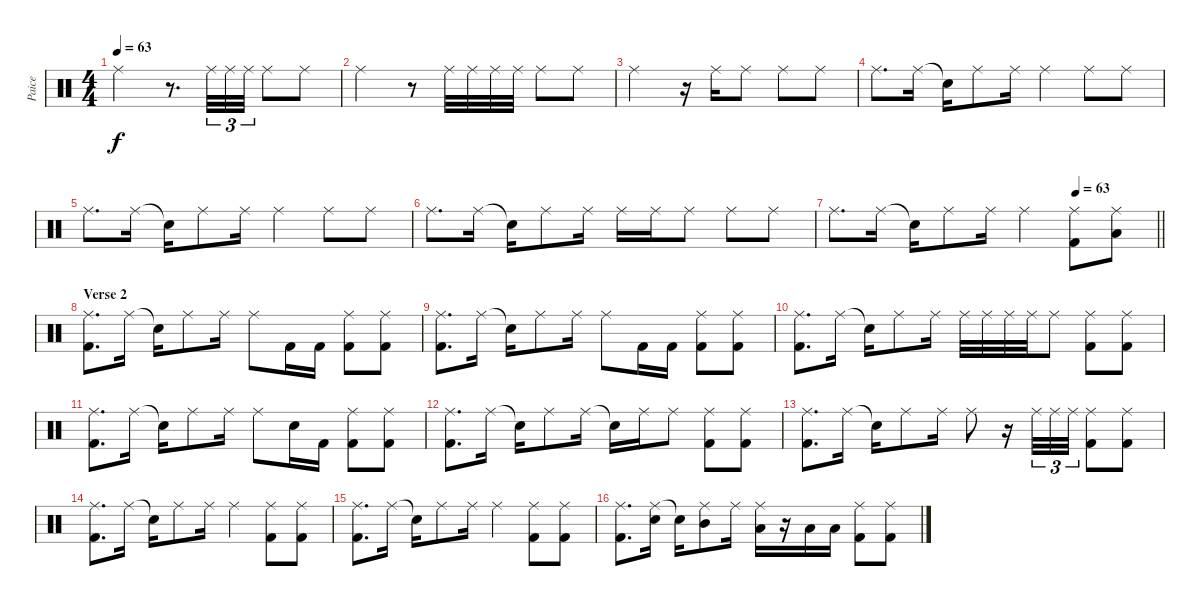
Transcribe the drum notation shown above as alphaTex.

\track ("Paice" "Paice") {instrument percussion}
\staff {score}
\articulation defaults
\ts (4 4)
\tempo 63
\clef neutral
\ks c "Ride (middle)".2{dy f}
r.8{d} "Ride (middle)".32{tu (3 2)} "Ride (middle)".32{tu (3 2)} "Ride (middle)".32{tu (3 2)} "Ride (middle)".8 "Ride (middle)".8 |
"Ride (middle)".2 r.8 "Ride (middle)".32 "Ride (middle)".32 "Ride (middle)".32 "Ride (middle)".32 "Ride (middle)".8 "Ride (middle)".8 |
"Ride (middle)".2 r.16 "Ride (middle)".16 "Ride (middle)".8 "Ride (middle)".8 "Ride (middle)".8 |
"Ride (middle)".8{d} "Ride (middle)".16 "Snare (hit)"{t}.16 "Ride (middle)".8 "Ride (middle)".16 "Ride (middle)".4 "Ride (middle)".8 "Ride (middle)".8 |
"Ride (middle)".8{d} "Ride (middle)".16 "Snare (hit)"{t}.16 "Ride (middle)".8 "Ride (middle)".16 "Ride (middle)".4 "Ride (middle)".8 "Ride (middle)".8 |
"Ride (middle)".8{d} "Ride (middle)".16 "Snare (hit)"{t}.16 "Ride (middle)".8 "Ride (middle)".16 "Ride (middle)".16 "Ride (middle)".16 "Ride (middle)".8 "Ride (middle)".8 "Ride (middle)".8 |
\tempo (63 0.75)
\barLineRight lightlight "Ride (middle)".8{d} "Ride (middle)".16 "Snare (hit)"{t}.16 "Ride (middle)".8 "Ride (middle)".16 "Ride (middle)".4
("Ride (middle)" "Kick (hit) 2").8 ("Ride (middle)" "Low Floor Tom (hit)").8 |
\section ("" "Verse 2")
("Ride (middle)" "Kick (hit) 2").8{d} "Ride (middle)".16 "Snare (hit)"{t}.16 "Ride (middle)".8 "Ride (middle)".16 "Ride (middle)".8 "Kick (hit) 2"{x}.16 "Kick (hit) 2".16 ("Ride (middle)" "Kick (hit) 2").8 ("Ride (middle)" "Kick (hit) 2").8 |
("Ride (middle)" "Kick (hit) 2").8{d} "Ride (middle)".16 "Snare (hit)"{t}.16 "Ride (middle)".8 "Ride (middle)".16 "Ride (middle)".8 "Kick (hit) 2"{x}.16 "Kick (hit) 2".16 ("Ride (middle)" "Kick (hit) 2").8 ("Ride (middle)" "Kick (hit) 2").8 |
("Ride (middle)" "Kick (hit) 2").8{d} "Ride (middle)".16 "Snare (hit)"{t}.16 "Ride (middle)".8 "Ride (middle)".16 "Ride (middle)".32 "Ride (middle)".32 "Ride (middle)".32 "Ride (middle)".32 "Ride (middle)".8 ("Ride (middle)" "Kick (hit) 2").8 ("Ride (middle)" "Kick (hit) 2").8 |
("Ride (middle)" "Kick (hit) 2").8{d} "Ride (middle)".16 "Snare (hit)"{t}.16 "Ride (middle)".8 "Ride (middle)".16 "Ride (middle)".8 "Snare (hit)"{x}.16 "Kick (hit) 2".16 ("Ride (middle)" "Kick (hit) 2").8 ("Ride (middle)" "Kick (hit) 2").8 |
("Ride (middle)" "Kick (hit) 2").8{d} "Ride (middle)".16 "Snare (hit)"{t}.16 "Ride (middle)".8 "Ride (middle)".16 "Snare (hit)"{t}.16 "Ride (middle)".16 "Ride (middle)".8 ("Ride (middle)" "Kick (hit) 2").8 ("Ride (middle)" "Kick (hit) 2").8 |
("Ride (middle)" "Kick (hit) 2").8{d} "Ride (middle)".16 "Snare (hit)"{t}.16 "Ride (middle)".8 "Ride (middle)".16 "Ride (middle)".8 r.16 "Ride (middle)".32{tu (3 2)} "Ride (middle)".32{tu (3 2)} "Ride (middle)".32{tu (3 2)} ("Ride (middle)" "Kick (hit) 2").8 ("Ride (middle)" "Kick (hit) 2").8 |
("Ride (middle)" "Kick (hit) 2").8{d} "Ride (middle)".16 "Snare (hit)"{t}.16 "Ride (middle)".8 "Ride (middle)".16 "Ride (middle)".4 ("Ride (middle)" "Kick (hit) 2").8 ("Ride (middle)" "Kick (hit) 2").8 |
("Ride (middle)" "Kick (hit) 2").8{d} "Ride (middle)".16 "Snare (hit)"{t}.16 "Ride (middle)".8 "Ride (middle)".16 "Ride (middle)".4 ("Ride (middle)" "Kick (hit) 2").8 ("Ride (middle)" "Kick (hit) 2").8 |
("Ride (middle)" "Kick (hit) 2").8{d} ("Ride (middle)" "Electric Snare (hit)").16 "Snare (hit)"{t}.16 ("Ride (middle)" "Mid Tom (hit)").8 "Ride (middle)".16 ("Ride (middle)" "Low Tom (hit)").16 r.16 "Low Tom (hit)".16 "Low Tom (hit)".16 ("Ride (middle)" "Kick (hit) 2").8 ("Ride (middle)" "Kick (hit) 2").8
